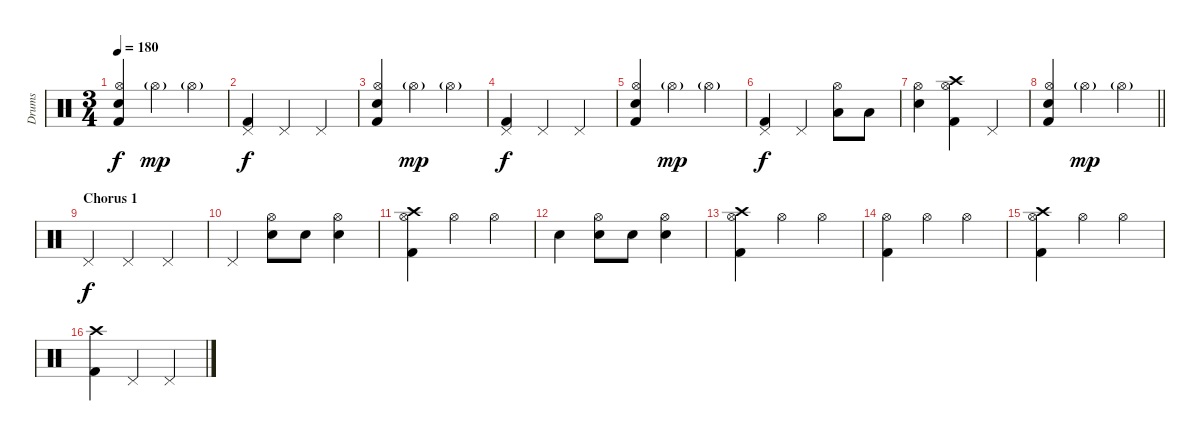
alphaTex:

\track ("Drums" "Drums") {instrument percussion}
\staff {score}
\articulation defaults
\ts (3 4)
\tempo 180
\clef neutral
\ks c
("Kick (hit) 2" "Hi-Hat (open)" "Electric Snare (hit)").4{dy f} "Hi-Hat (open)"{g}.4{dy mp} "Hi-Hat (open)"{g}.4 |
("Kick (hit) 2" "Pedal Hi-Hat (hit)").4{dy f} "Pedal Hi-Hat (hit)".4 "Pedal Hi-Hat (hit)".4 |
("Kick (hit) 2" "Hi-Hat (open)" "Electric Snare (hit)").4 "Hi-Hat (open)"{g}.4{dy mp} "Hi-Hat (open)"{g}.4 |
("Kick (hit) 2" "Pedal Hi-Hat (hit)").4{dy f} "Pedal Hi-Hat (hit)".4 "Pedal Hi-Hat (hit)".4 |
("Kick (hit) 2" "Hi-Hat (open)" "Electric Snare (hit)").4 "Hi-Hat (open)"{g}.4{dy mp} "Hi-Hat (open)"{g}.4 |
("Kick (hit) 2" "Pedal Hi-Hat (hit)").4{dy f} "Pedal Hi-Hat (hit)".4 ("Low Tom (hit)" "Hi-Hat (open)").8 "Low Tom (hit)".8 |
("Hi-Hat (open)" "Snare (hit) 2").4 ("Kick (hit) 2" "Hi-Hat (open)" "Crash high (hit)").4 "Pedal Hi-Hat (hit)".4 |
\barLineRight lightlight
("Kick (hit) 2" "Hi-Hat (open)" "Electric Snare (hit)").4 "Hi-Hat (open)"{g}.4{dy mp} "Hi-Hat (open)"{g}.4 |
\section ("" "Chorus 1")
"Pedal Hi-Hat (hit)".4{dy f} "Pedal Hi-Hat (hit)".4 "Pedal Hi-Hat (hit)".4 |
"Pedal Hi-Hat (hit)".4 ("Electric Snare (hit)" "Hi-Hat (open)").8 "Electric Snare (hit)".8 ("Hi-Hat (open)" "Snare (hit) 2").4 |
("Kick (hit) 2" "Hi-Hat (open)" "Crash high (hit)").4 "Hi-Hat (open)".4 "Hi-Hat (open)".4 |
"Snare (hit) 2".4 ("Electric Snare (hit)" "Hi-Hat (open)").8 "Electric Snare (hit)".8 ("Hi-Hat (open)" "Snare (hit) 2").4 |
("Kick (hit) 2" "Hi-Hat (open)" "Crash high (hit)").4 "Hi-Hat (open)".4 "Hi-Hat (open)".4 |
("Kick (hit) 2" "Hi-Hat (open)").4 "Hi-Hat (open)".4 "Hi-Hat (open)".4 |
("Kick (hit) 2" "Hi-Hat (open)" "Crash high (hit)").4 "Hi-Hat (open)".4 "Hi-Hat (open)".4 |
("Crash high (hit)" "Kick (hit) 2").4 "Pedal Hi-Hat (hit)".4 "Pedal Hi-Hat (hit)".4
